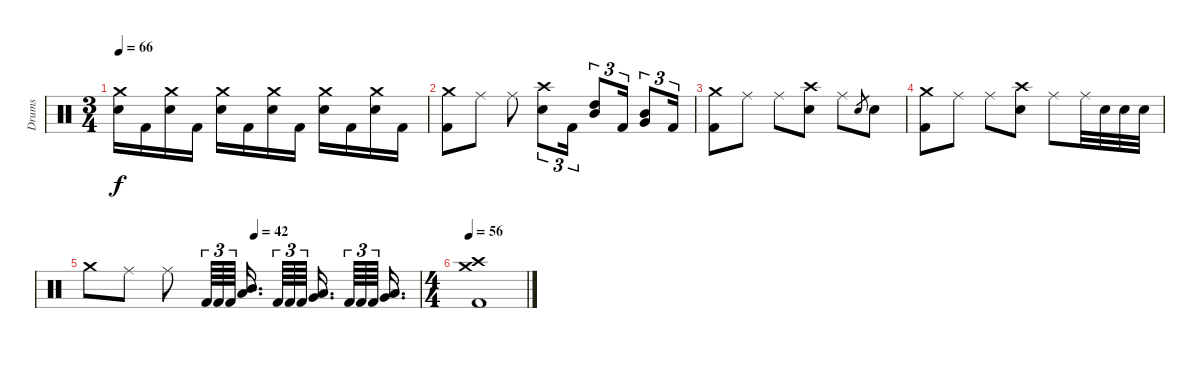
\track ("Drums" "Drums") {instrument percussion}
\staff {score}
\articulation defaults
\ts (3 4)
\tempo 66
\clef neutral
\ks c
("Crash medium (hit)" "Electric Snare (hit)").16{dy f} "Kick (hit) 2".16 ("Crash medium (hit)" "Electric Snare (hit)").16 "Kick (hit) 2".16 ("Crash medium (hit)" "Electric Snare (hit)").16 "Kick (hit) 2".16 ("Crash medium (hit)" "Electric Snare (hit)").16 "Kick (hit) 2".16 ("Crash medium (hit)" "Electric Snare (hit)").16 "Kick (hit) 2".16 ("Crash medium (hit)" "Electric Snare (hit)").16 "Kick (hit) 2".16 |
("Crash medium (hit)" "Kick (hit) 2").8 "Ride (middle)".8 "Ride (middle)".8 ("Crash high (hit)" "Electric Snare (hit)").8{tu (3 2)} "Kick (hit) 2".16{tu (3 2)} ("Mid Tom (hit)" "High Tom (hit)").8{tu (3 2)} "Kick (hit) 2".16{tu (3 2)} ("Mid Tom (hit)" "Very Low Tom (hit)").8{tu (3 2)} "Kick (hit) 2".16{tu (3 2)} |
("Crash medium (hit)" "Kick (hit) 2").8 "Ride (middle)".8 "Ride (middle)".8 ("Crash high (hit)" "Electric Snare (hit)").8 "Ride (middle)".8 "Electric Snare (hit)".8{gr} "Electric Snare (hit)".8 |
("Crash medium (hit)" "Kick (hit) 2").8 "Ride (middle)".8 "Ride (middle)".8 ("Crash high (hit)" "Electric Snare (hit)").8 "Ride (middle)".8 "Ride (middle)".32 "Electric Snare (hit)".32 "Electric Snare (hit)".32 "Electric Snare (hit)".32 |
\tempo (42 0.5)
"Crash medium (hit)".8 "Ride (middle)".8 "Ride (middle)".8 "Kick (hit) 2".64{tu (3 2)} "Kick (hit) 2".64{tu (3 2)} "Kick (hit) 2".64{tu (3 2) beam splitsecondary} ("Low Tom (hit)" "Mid Tom (hit)").16{d} "Kick (hit) 2".64{tu (3 2)} "Kick (hit) 2".64{tu (3 2)} "Kick (hit) 2".64{tu (3 2) beam splitsecondary} ("Very Low Tom (hit)" "Low Tom (hit)").16{d beam splitsecondary} "Kick (hit) 2".64{tu (3 2)} "Kick (hit) 2".64{tu (3 2)} "Kick (hit) 2".64{tu (3 2) beam splitsecondary} ("Low Floor Tom (hit)" "Very Low Tom (hit)").16{d} |
\ts (4 4)
\tempo 56
("Crash medium (hit)" "Crash high (hit)" "Kick (hit) 2").1
